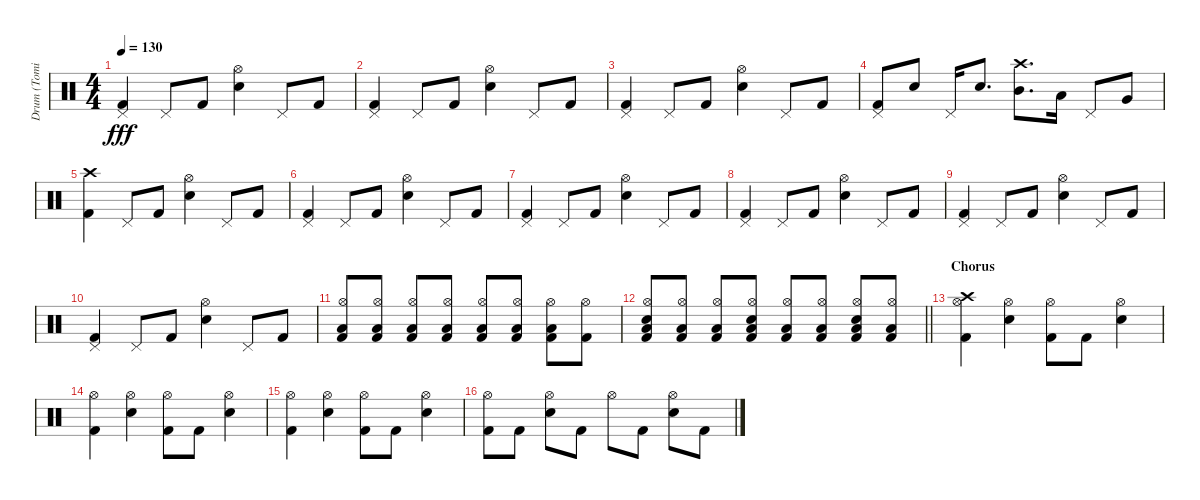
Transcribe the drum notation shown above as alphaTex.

\track ("Drum (Tomi)" "Drum (Tomi") {instrument percussion}
\staff {score}
\articulation defaults
\ts (4 4)
\tempo 130
\clef neutral
\ks c
("Pedal Hi-Hat (hit)" "Kick (hit) 2").4{dy fff} "Pedal Hi-Hat (hit)".8 "Kick (hit) 2".8 ("Electric Snare (hit)" "Hi-Hat (open)").4 "Pedal Hi-Hat (hit)".8 "Kick (hit) 2".8 |
("Pedal Hi-Hat (hit)" "Kick (hit) 2").4 "Pedal Hi-Hat (hit)".8 "Kick (hit) 2".8 ("Electric Snare (hit)" "Hi-Hat (open)").4 "Pedal Hi-Hat (hit)".8 "Kick (hit) 2".8 |
("Pedal Hi-Hat (hit)" "Kick (hit) 2").4 "Pedal Hi-Hat (hit)".8 "Kick (hit) 2".8 ("Hi-Hat (open)" "Electric Snare (hit)").4 "Pedal Hi-Hat (hit)".8 "Kick (hit) 2".8 |
("Pedal Hi-Hat (hit)" "Kick (hit) 2").8 "Electric Snare (hit)".8 "Pedal Hi-Hat (hit)".16 "Electric Snare (hit)".8{d} ("Crash high (hit)" "Mid Tom (hit)").8{d} "Low Tom (hit)".16 "Pedal Hi-Hat (hit)".8 "Very Low Tom (hit)".8 |
("Crash high (hit)" "Kick (hit) 2").4 "Pedal Hi-Hat (hit)".8 "Kick (hit) 2".8 ("Hi-Hat (open)" "Electric Snare (hit)").4 "Pedal Hi-Hat (hit)".8 "Kick (hit) 2".8 |
("Pedal Hi-Hat (hit)" "Kick (hit) 2").4 "Pedal Hi-Hat (hit)".8 "Kick (hit) 2".8 ("Electric Snare (hit)" "Hi-Hat (open)").4 "Pedal Hi-Hat (hit)".8 "Kick (hit) 2".8 |
("Pedal Hi-Hat (hit)" "Kick (hit) 2").4 "Pedal Hi-Hat (hit)".8 "Kick (hit) 2".8 ("Hi-Hat (open)" "Electric Snare (hit)").4 "Pedal Hi-Hat (hit)".8 "Kick (hit) 2".8 |
("Pedal Hi-Hat (hit)" "Kick (hit) 2").4 "Pedal Hi-Hat (hit)".8 "Kick (hit) 2".8 ("Electric Snare (hit)" "Hi-Hat (open)").4 "Pedal Hi-Hat (hit)".8 "Kick (hit) 2".8 |
("Pedal Hi-Hat (hit)" "Kick (hit) 2").4 "Pedal Hi-Hat (hit)".8 "Kick (hit) 2".8 ("Hi-Hat (open)" "Electric Snare (hit)").4 "Pedal Hi-Hat (hit)".8 "Kick (hit) 2".8 |
("Kick (hit) 2" "Pedal Hi-Hat (hit)").4 "Pedal Hi-Hat (hit)".8 "Kick (hit) 2".8 ("Electric Snare (hit)" "Hi-Hat (open)").4 "Pedal Hi-Hat (hit)".8 "Kick (hit) 2".8 |
("Hi-Hat (open)" "Kick (hit) 2" "Low Floor Tom (hit)").8 ("Hi-Hat (open)" "Low Floor Tom (hit)" "Kick (hit) 2").8 ("Hi-Hat (open)" "Kick (hit) 2" "Low Floor Tom (hit)").8 ("Hi-Hat (open)" "Low Floor Tom (hit)" "Kick (hit) 2").8 ("Hi-Hat (open)" "Low Floor Tom (hit)" "Kick (hit) 2").8 ("Hi-Hat (open)" "Low Floor Tom (hit)" "Kick (hit) 2").8 ("Low Floor Tom (hit)" "Kick (hit) 2" "Hi-Hat (open)").8 ("Hi-Hat (open)" "Kick (hit) 2").8 |
\barLineRight lightlight
("Kick (hit) 2" "Hi-Hat (open)" "Low Floor Tom (hit)" "Electric Snare (hit)").8 ("Hi-Hat (open)" "Low Floor Tom (hit)" "Kick (hit) 2").8 ("Hi-Hat (open)" "Low Floor Tom (hit)" "Kick (hit) 2").8 ("Hi-Hat (open)" "Low Floor Tom (hit)" "Kick (hit) 2" "Electric Snare (hit)").8 ("Hi-Hat (open)" "Low Floor Tom (hit)" "Kick (hit) 2").8 ("Hi-Hat (open)" "Low Floor Tom (hit)" "Kick (hit) 2").8 ("Hi-Hat (open)" "Kick (hit) 2" "Low Floor Tom (hit)" "Electric Snare (hit)").8 ("Low Floor Tom (hit)" "Kick (hit) 2" "Hi-Hat (open)").8 |
\section ("" "Chorus")
("Kick (hit) 2" "Hi-Hat (open)" "Crash high (hit)").4 ("Hi-Hat (open)" "Electric Snare (hit)").4 ("Hi-Hat (open)" "Kick (hit) 2").8 "Kick (hit) 2".8 ("Hi-Hat (open)" "Electric Snare (hit)").4 |
("Hi-Hat (open)" "Kick (hit) 2").4 ("Hi-Hat (open)" "Electric Snare (hit)").4 ("Hi-Hat (open)" "Kick (hit) 2").8 "Kick (hit) 2".8 ("Hi-Hat (open)" "Electric Snare (hit)").4 |
("Kick (hit) 2" "Hi-Hat (open)").4 ("Hi-Hat (open)" "Electric Snare (hit)").4 ("Kick (hit) 2" "Hi-Hat (open)").8 "Kick (hit) 2".8 ("Hi-Hat (open)" "Electric Snare (hit)").4 |
("Kick (hit) 2" "Hi-Hat (open)").8 "Kick (hit) 2".8 ("Hi-Hat (open)" "Electric Snare (hit)").8 "Kick (hit) 2".8 "Hi-Hat (open)".8 "Kick (hit) 2".8 ("Hi-Hat (open)" "Electric Snare (hit)").8 "Kick (hit) 2".8
